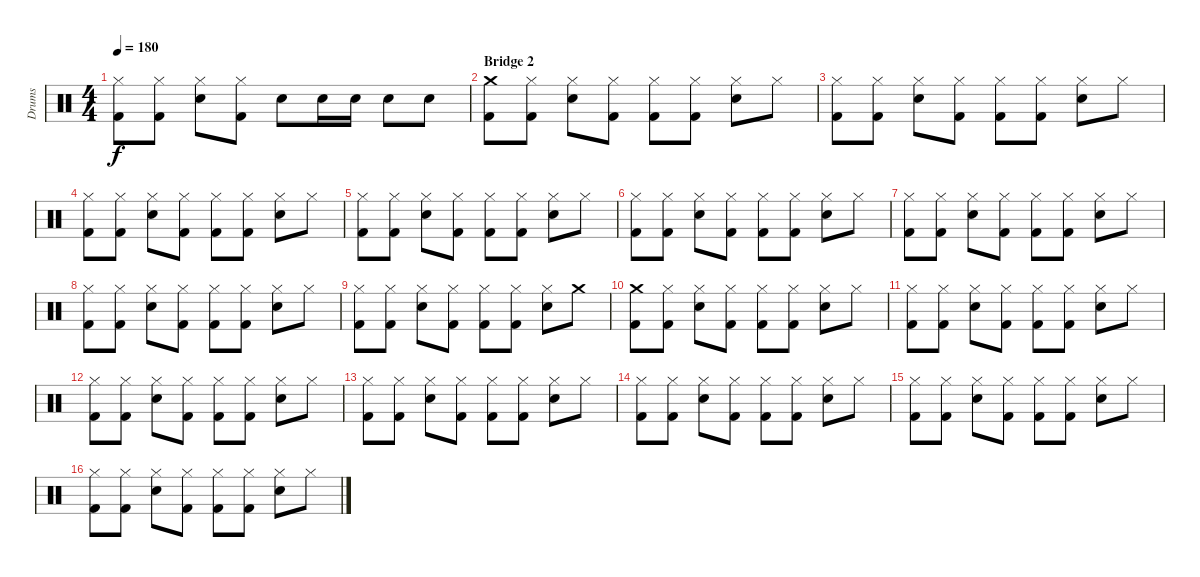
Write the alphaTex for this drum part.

\track ("Drums" "Drums") {instrument percussion}
\staff {score}
\articulation defaults
\ts (4 4)
\tempo 180
\clef neutral
\ks c
("Hi-Hat (closed)" "Kick (hit) 2").8{dy f} ("Hi-Hat (closed)" "Kick (hit) 2").8 ("Hi-Hat (closed)" "Electric Snare (hit)").8 ("Hi-Hat (closed)" "Kick (hit) 2").8 "Electric Snare (hit)".8 "Electric Snare (hit)".16 "Electric Snare (hit)".16 "Electric Snare (hit)".8 "Electric Snare (hit)".8 |
\section ("" "Bridge 2")
("Crash medium (hit)" "Kick (hit) 2").8 ("Hi-Hat (closed)" "Kick (hit) 2").8 ("Hi-Hat (closed)" "Electric Snare (hit)").8 ("Hi-Hat (closed)" "Kick (hit) 2").8 ("Hi-Hat (closed)" "Kick (hit) 2").8 ("Hi-Hat (closed)" "Kick (hit) 2").8 ("Hi-Hat (closed)" "Electric Snare (hit)").8 "Hi-Hat (closed)".8 |
("Hi-Hat (closed)" "Kick (hit) 2").8 ("Hi-Hat (closed)" "Kick (hit) 2").8 ("Hi-Hat (closed)" "Electric Snare (hit)").8 ("Hi-Hat (closed)" "Kick (hit) 2").8 ("Hi-Hat (closed)" "Kick (hit) 2").8 ("Hi-Hat (closed)" "Kick (hit) 2").8 ("Hi-Hat (closed)" "Electric Snare (hit)").8 "Hi-Hat (closed)".8 |
("Hi-Hat (closed)" "Kick (hit) 2").8 ("Hi-Hat (closed)" "Kick (hit) 2").8 ("Hi-Hat (closed)" "Electric Snare (hit)").8 ("Hi-Hat (closed)" "Kick (hit) 2").8 ("Hi-Hat (closed)" "Kick (hit) 2").8 ("Hi-Hat (closed)" "Kick (hit) 2").8 ("Hi-Hat (closed)" "Electric Snare (hit)").8 "Hi-Hat (closed)".8 |
("Hi-Hat (closed)" "Kick (hit) 2").8 ("Hi-Hat (closed)" "Kick (hit) 2").8 ("Hi-Hat (closed)" "Electric Snare (hit)").8 ("Hi-Hat (closed)" "Kick (hit) 2").8 ("Hi-Hat (closed)" "Kick (hit) 2").8 ("Hi-Hat (closed)" "Kick (hit) 2").8 ("Hi-Hat (closed)" "Electric Snare (hit)").8 "Hi-Hat (closed)".8 |
("Hi-Hat (closed)" "Kick (hit) 2").8 ("Hi-Hat (closed)" "Kick (hit) 2").8 ("Hi-Hat (closed)" "Electric Snare (hit)").8 ("Hi-Hat (closed)" "Kick (hit) 2").8 ("Hi-Hat (closed)" "Kick (hit) 2").8 ("Hi-Hat (closed)" "Kick (hit) 2").8 ("Hi-Hat (closed)" "Electric Snare (hit)").8 "Hi-Hat (closed)".8 |
("Hi-Hat (closed)" "Kick (hit) 2").8 ("Hi-Hat (closed)" "Kick (hit) 2").8 ("Hi-Hat (closed)" "Electric Snare (hit)").8 ("Hi-Hat (closed)" "Kick (hit) 2").8 ("Hi-Hat (closed)" "Kick (hit) 2").8 ("Hi-Hat (closed)" "Kick (hit) 2").8 ("Hi-Hat (closed)" "Electric Snare (hit)").8 "Hi-Hat (closed)".8 |
("Hi-Hat (closed)" "Kick (hit) 2").8 ("Hi-Hat (closed)" "Kick (hit) 2").8 ("Hi-Hat (closed)" "Electric Snare (hit)").8 ("Hi-Hat (closed)" "Kick (hit) 2").8 ("Hi-Hat (closed)" "Kick (hit) 2").8 ("Hi-Hat (closed)" "Kick (hit) 2").8 ("Hi-Hat (closed)" "Electric Snare (hit)").8 "Hi-Hat (closed)".8 |
("Hi-Hat (closed)" "Kick (hit) 2").8 ("Hi-Hat (closed)" "Kick (hit) 2").8 ("Hi-Hat (closed)" "Electric Snare (hit)").8 ("Hi-Hat (closed)" "Kick (hit) 2").8 ("Hi-Hat (closed)" "Kick (hit) 2").8 ("Hi-Hat (closed)" "Kick (hit) 2").8 ("Hi-Hat (closed)" "Electric Snare (hit)").8 "Crash medium (hit)".8 |
("Crash medium (hit)" "Kick (hit) 2").8 ("Hi-Hat (closed)" "Kick (hit) 2").8 ("Hi-Hat (closed)" "Electric Snare (hit)").8 ("Hi-Hat (closed)" "Kick (hit) 2").8 ("Hi-Hat (closed)" "Kick (hit) 2").8 ("Hi-Hat (closed)" "Kick (hit) 2").8 ("Hi-Hat (closed)" "Electric Snare (hit)").8 "Hi-Hat (closed)".8 |
("Hi-Hat (closed)" "Kick (hit) 2").8 ("Hi-Hat (closed)" "Kick (hit) 2").8 ("Hi-Hat (closed)" "Electric Snare (hit)").8 ("Hi-Hat (closed)" "Kick (hit) 2").8 ("Hi-Hat (closed)" "Kick (hit) 2").8 ("Hi-Hat (closed)" "Kick (hit) 2").8 ("Hi-Hat (closed)" "Electric Snare (hit)").8 "Hi-Hat (closed)".8 |
("Hi-Hat (closed)" "Kick (hit) 2").8 ("Hi-Hat (closed)" "Kick (hit) 2").8 ("Hi-Hat (closed)" "Electric Snare (hit)").8 ("Hi-Hat (closed)" "Kick (hit) 2").8 ("Hi-Hat (closed)" "Kick (hit) 2").8 ("Hi-Hat (closed)" "Kick (hit) 2").8 ("Hi-Hat (closed)" "Electric Snare (hit)").8 "Hi-Hat (closed)".8 |
("Hi-Hat (closed)" "Kick (hit) 2").8 ("Hi-Hat (closed)" "Kick (hit) 2").8 ("Hi-Hat (closed)" "Electric Snare (hit)").8 ("Hi-Hat (closed)" "Kick (hit) 2").8 ("Hi-Hat (closed)" "Kick (hit) 2").8 ("Hi-Hat (closed)" "Kick (hit) 2").8 ("Hi-Hat (closed)" "Electric Snare (hit)").8 "Hi-Hat (closed)".8 |
("Hi-Hat (closed)" "Kick (hit) 2").8 ("Hi-Hat (closed)" "Kick (hit) 2").8 ("Hi-Hat (closed)" "Electric Snare (hit)").8 ("Hi-Hat (closed)" "Kick (hit) 2").8 ("Hi-Hat (closed)" "Kick (hit) 2").8 ("Hi-Hat (closed)" "Kick (hit) 2").8 ("Hi-Hat (closed)" "Electric Snare (hit)").8 "Hi-Hat (closed)".8 |
("Hi-Hat (closed)" "Kick (hit) 2").8 ("Hi-Hat (closed)" "Kick (hit) 2").8 ("Hi-Hat (closed)" "Electric Snare (hit)").8 ("Hi-Hat (closed)" "Kick (hit) 2").8 ("Hi-Hat (closed)" "Kick (hit) 2").8 ("Hi-Hat (closed)" "Kick (hit) 2").8 ("Hi-Hat (closed)" "Electric Snare (hit)").8 "Hi-Hat (closed)".8 |
("Hi-Hat (closed)" "Kick (hit) 2").8 ("Hi-Hat (closed)" "Kick (hit) 2").8 ("Hi-Hat (closed)" "Electric Snare (hit)").8 ("Hi-Hat (closed)" "Kick (hit) 2").8 ("Hi-Hat (closed)" "Kick (hit) 2").8 ("Hi-Hat (closed)" "Kick (hit) 2").8 ("Hi-Hat (closed)" "Electric Snare (hit)").8 "Hi-Hat (closed)".8
